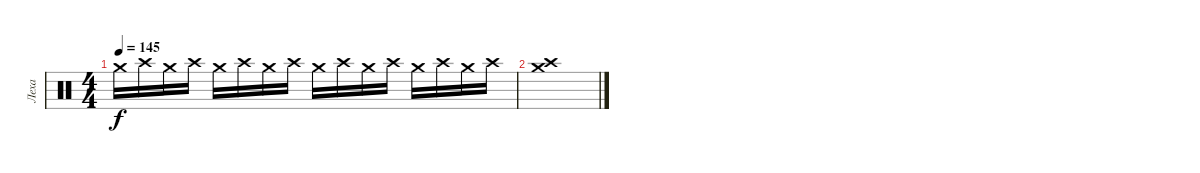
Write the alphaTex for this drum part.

\track ("Леха" "Леха") {instrument percussion}
\staff {score}
\articulation defaults
\ts (4 4)
\tempo 145
\clef neutral
\ks c "Crash medium (hit)".16{dy f} "Crash high (hit)".16 "Crash medium (hit)".16 "Crash high (hit)".16 "Crash medium (hit)".16 "Crash high (hit)".16 "Crash medium (hit)".16 "Crash high (hit)".16 "Crash medium (hit)".16 "Crash high (hit)".16 "Crash medium (hit)".16 "Crash high (hit)".16 "Crash medium (hit)".16 "Crash high (hit)".16 "Crash medium (hit)".16 "Crash high (hit)".16
|
("Crash medium (hit)" "Crash high (hit)").1
